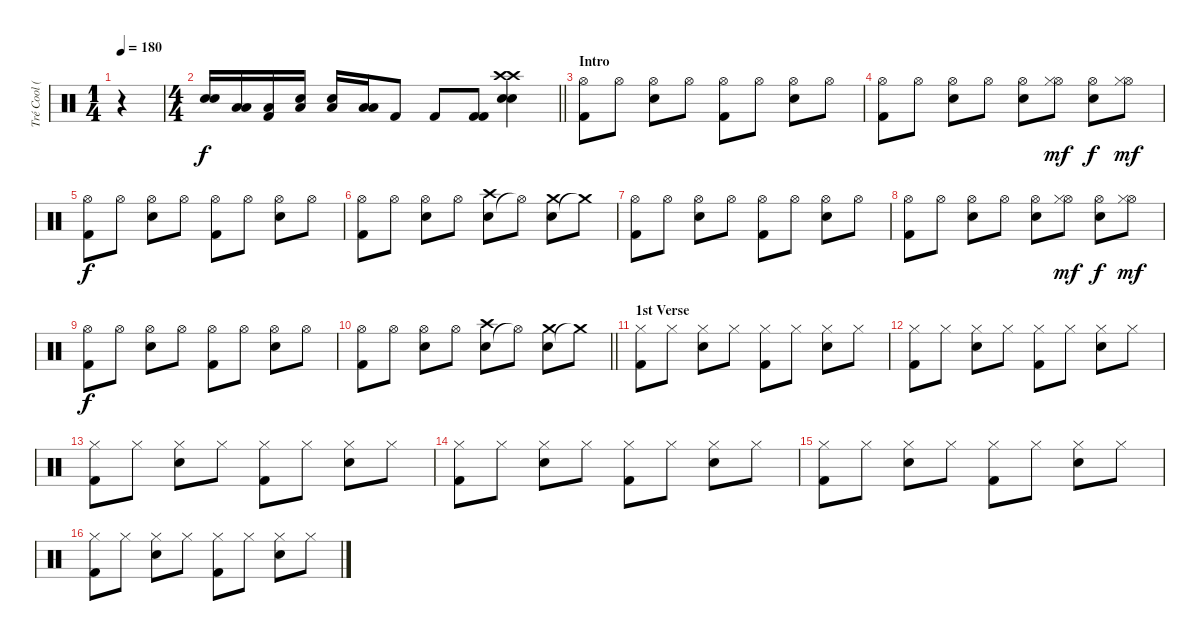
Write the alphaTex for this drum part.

\track ("Tré Cool (Drums)" "Tré Cool (") {instrument percussion}
\staff {score}
\articulation defaults
\ts (1 4)
\tempo 180
\clef neutral
\ks c
r.4{dy f} |
\ts (4 4)
\barLineRight lightlight
("Snare (hit) 2" "Snare (hit) 2").16 ("Low Floor Tom (hit)" "Low Floor Tom (hit)").16 ("Kick (hit) 2" "Low Floor Tom (hit)").16 ("Snare (hit) 2" "Low Floor Tom (hit)").16 ("Snare (hit) 2" "Low Floor Tom (hit)").16 ("Low Floor Tom (hit)" "Low Floor Tom (hit)").16 "Kick (hit) 2".8 "Kick (hit) 2".8 ("Kick (hit) 2" "Kick (hit) 2").8 ("Electric Snare (hit)" "Snare (hit) 2" "Crash high (hit)" "Crash high (hit)").4 |
\section ("" "Intro")
("Kick (hit) 2" "Hi-Hat (open)").8 "Hi-Hat (open)".8 ("Snare (hit) 2" "Hi-Hat (open)").8 "Hi-Hat (open)".8 ("Kick (hit) 2" "Hi-Hat (open)").8 "Hi-Hat (open)".8 ("Snare (hit) 2" "Hi-Hat (open)").8 "Hi-Hat (open)".8 |
("Kick (hit) 2" "Hi-Hat (open)").8 "Hi-Hat (open)".8 ("Snare (hit) 2" "Hi-Hat (open)").8 "Hi-Hat (open)".8 ("Snare (hit) 2" "Hi-Hat (open)").8 ("Hi-Hat (open)" "Hi-Hat (closed)").8{dy mf} ("Snare (hit) 2" "Hi-Hat (open)").8{dy f} ("Hi-Hat (open)" "Hi-Hat (closed)").8{dy mf} |
("Kick (hit) 2" "Hi-Hat (open)").8{dy f} "Hi-Hat (open)".8 ("Snare (hit) 2" "Hi-Hat (open)").8 "Hi-Hat (open)".8 ("Kick (hit) 2" "Hi-Hat (open)").8 "Hi-Hat (open)".8 ("Snare (hit) 2" "Hi-Hat (open)").8 "Hi-Hat (open)".8 |
("Kick (hit) 2" "Hi-Hat (open)").8 "Hi-Hat (open)".8 ("Snare (hit) 2" "Hi-Hat (open)").8 "Hi-Hat (open)".8 ("Snare (hit) 2" "Crash high (hit)").8 "Hi-Hat (open)"{t}.8 ("Snare (hit) 2" "Crash medium (hit)").8 "Crash medium (hit)"{t}.8 |
("Kick (hit) 2" "Hi-Hat (open)").8 "Hi-Hat (open)".8 ("Snare (hit) 2" "Hi-Hat (open)").8 "Hi-Hat (open)".8 ("Kick (hit) 2" "Hi-Hat (open)").8 "Hi-Hat (open)".8 ("Snare (hit) 2" "Hi-Hat (open)").8 "Hi-Hat (open)".8 |
("Kick (hit) 2" "Hi-Hat (open)").8 "Hi-Hat (open)".8 ("Snare (hit) 2" "Hi-Hat (open)").8 "Hi-Hat (open)".8 ("Snare (hit) 2" "Hi-Hat (open)").8 ("Hi-Hat (open)" "Hi-Hat (closed)").8{dy mf} ("Snare (hit) 2" "Hi-Hat (open)").8{dy f} ("Hi-Hat (open)" "Hi-Hat (closed)").8{dy mf} |
("Kick (hit) 2" "Hi-Hat (open)").8{dy f} "Hi-Hat (open)".8 ("Snare (hit) 2" "Hi-Hat (open)").8 "Hi-Hat (open)".8 ("Kick (hit) 2" "Hi-Hat (open)").8 "Hi-Hat (open)".8 ("Snare (hit) 2" "Hi-Hat (open)").8 "Hi-Hat (open)".8 |
\barLineRight lightlight
("Kick (hit) 2" "Hi-Hat (open)").8 "Hi-Hat (open)".8 ("Snare (hit) 2" "Hi-Hat (open)").8 "Hi-Hat (open)".8 ("Snare (hit) 2" "Crash high (hit)").8 "Hi-Hat (open)"{t}.8 ("Snare (hit) 2" "Crash medium (hit)").8 "Crash medium (hit)"{t}.8 |
\section ("" "1st Verse")
("Kick (hit) 2" "Hi-Hat (closed)").8 "Hi-Hat (closed)".8 ("Snare (hit) 2" "Hi-Hat (closed)").8 "Hi-Hat (closed)".8 ("Kick (hit) 2" "Hi-Hat (closed)").8 "Hi-Hat (closed)".8 ("Snare (hit) 2" "Hi-Hat (closed)").8 "Hi-Hat (closed)".8 |
("Kick (hit) 2" "Hi-Hat (closed)").8 "Hi-Hat (closed)".8 ("Snare (hit) 2" "Hi-Hat (closed)").8 "Hi-Hat (closed)".8 ("Kick (hit) 2" "Hi-Hat (closed)").8 "Hi-Hat (closed)".8 ("Snare (hit) 2" "Hi-Hat (closed)").8 "Hi-Hat (closed)".8 |
("Kick (hit) 2" "Hi-Hat (closed)").8 "Hi-Hat (closed)".8 ("Snare (hit) 2" "Hi-Hat (closed)").8 "Hi-Hat (closed)".8 ("Kick (hit) 2" "Hi-Hat (closed)").8 "Hi-Hat (closed)".8 ("Snare (hit) 2" "Hi-Hat (closed)").8 "Hi-Hat (closed)".8 |
("Kick (hit) 2" "Hi-Hat (closed)").8 "Hi-Hat (closed)".8 ("Snare (hit) 2" "Hi-Hat (closed)").8 "Hi-Hat (closed)".8 ("Kick (hit) 2" "Hi-Hat (closed)").8 "Hi-Hat (closed)".8 ("Snare (hit) 2" "Hi-Hat (closed)").8 "Hi-Hat (closed)".8 |
("Kick (hit) 2" "Hi-Hat (closed)").8 "Hi-Hat (closed)".8 ("Snare (hit) 2" "Hi-Hat (closed)").8 "Hi-Hat (closed)".8 ("Kick (hit) 2" "Hi-Hat (closed)").8 "Hi-Hat (closed)".8 ("Snare (hit) 2" "Hi-Hat (closed)").8 "Hi-Hat (closed)".8 |
("Kick (hit) 2" "Hi-Hat (closed)").8 "Hi-Hat (closed)".8 ("Snare (hit) 2" "Hi-Hat (closed)").8 "Hi-Hat (closed)".8 ("Kick (hit) 2" "Hi-Hat (closed)").8 "Hi-Hat (closed)".8 ("Snare (hit) 2" "Hi-Hat (closed)").8 "Hi-Hat (closed)".8
